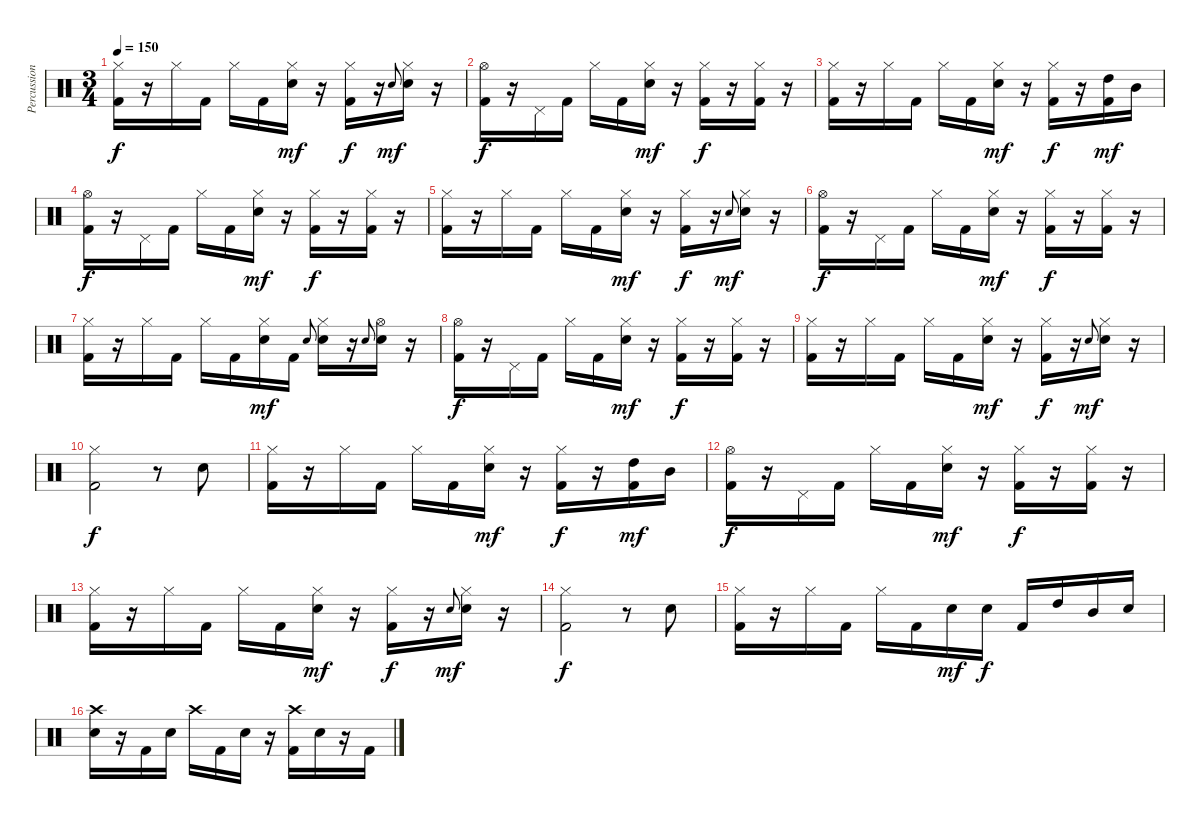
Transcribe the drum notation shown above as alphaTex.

\track ("Percussion" "Percussion") {instrument percussion}
\staff {score}
\articulation defaults
\ts (3 4)
\tempo 150
\clef neutral
\ks c
("Hi-Hat (closed)" "Kick (hit) 2").16{dy f} r.16 "Hi-Hat (closed)".16 "Kick (hit) 2".16 "Hi-Hat (closed)".16 "Kick (hit) 2".16 ("Hi-Hat (closed)" "Electric Snare (hit)").16{dy mf} r.16 ("Hi-Hat (closed)" "Kick (hit) 2").16{dy f} r.16 "Electric Snare (hit)"{h}.8{gr onbeat dy mf} ("Hi-Hat (closed)" "Electric Snare (hit)").16 r.16 |
("Hi-Hat (open)" "Kick (hit) 2").16{dy f} r.16 "Pedal Hi-Hat (hit)".16 "Kick (hit) 2".16 "Hi-Hat (closed)".16 "Kick (hit) 2".16 ("Hi-Hat (closed)" "Electric Snare (hit)").16{dy mf} r.16 ("Hi-Hat (closed)" "Kick (hit) 2").16{dy f} r.16 ("Hi-Hat (closed)" "Kick (hit) 2").16 r.16 |
("Hi-Hat (closed)" "Kick (hit) 2").16 r.16 "Hi-Hat (closed)".16 "Kick (hit) 2".16 "Hi-Hat (closed)".16 "Kick (hit) 2".16 ("Hi-Hat (closed)" "Electric Snare (hit)").16{dy mf} r.16 ("Hi-Hat (closed)" "Kick (hit) 2").16{dy f} r.16 ("High Tom (hit)" "Kick (hit) 2").16{dy mf} "Mid Tom (hit)".16 |
("Hi-Hat (open)" "Kick (hit) 2").16{dy f} r.16 "Pedal Hi-Hat (hit)".16 "Kick (hit) 2".16 "Hi-Hat (closed)".16 "Kick (hit) 2".16 ("Hi-Hat (closed)" "Electric Snare (hit)").16{dy mf} r.16 ("Hi-Hat (closed)" "Kick (hit) 2").16{dy f} r.16 ("Hi-Hat (closed)" "Kick (hit) 2").16 r.16 |
("Hi-Hat (closed)" "Kick (hit) 2").16 r.16 "Hi-Hat (closed)".16 "Kick (hit) 2".16 "Hi-Hat (closed)".16 "Kick (hit) 2".16 ("Hi-Hat (closed)" "Electric Snare (hit)").16{dy mf} r.16 ("Hi-Hat (closed)" "Kick (hit) 2").16{dy f} r.16 "Electric Snare (hit)"{h}.8{gr onbeat dy mf} ("Hi-Hat (closed)" "Electric Snare (hit)").16 r.16 |
("Hi-Hat (open)" "Kick (hit) 2").16{dy f} r.16 "Pedal Hi-Hat (hit)".16 "Kick (hit) 2".16 "Hi-Hat (closed)".16 "Kick (hit) 2".16 ("Hi-Hat (closed)" "Electric Snare (hit)").16{dy mf} r.16 ("Hi-Hat (closed)" "Kick (hit) 2").16{dy f} r.16 ("Hi-Hat (closed)" "Kick (hit) 2").16 r.16 |
("Hi-Hat (closed)" "Kick (hit) 2").16 r.16 "Hi-Hat (closed)".16 "Kick (hit) 2".16 "Hi-Hat (closed)".16 "Kick (hit) 2".16 ("Hi-Hat (closed)" "Electric Snare (hit)").16{dy mf} "Kick (hit) 2".16 "Electric Snare (hit)"{h}.8{gr onbeat} ("Hi-Hat (closed)" "Electric Snare (hit)").16 r.16 "Electric Snare (hit)"{h}.8{gr onbeat} ("Hi-Hat (open)" "Electric Snare (hit)").16 r.16 |
("Hi-Hat (open)" "Kick (hit) 2").16{dy f} r.16 "Pedal Hi-Hat (hit)".16 "Kick (hit) 2".16 "Hi-Hat (closed)".16 "Kick (hit) 2".16 ("Hi-Hat (closed)" "Electric Snare (hit)").16{dy mf} r.16 ("Hi-Hat (closed)" "Kick (hit) 2").16{dy f} r.16 ("Hi-Hat (closed)" "Kick (hit) 2").16 r.16 |
("Hi-Hat (closed)" "Kick (hit) 2").16 r.16 "Hi-Hat (closed)".16 "Kick (hit) 2".16 "Hi-Hat (closed)".16 "Kick (hit) 2".16 ("Hi-Hat (closed)" "Electric Snare (hit)").16{dy mf} r.16 ("Hi-Hat (closed)" "Kick (hit) 2").16{dy f} r.16 "Electric Snare (hit)"{h}.8{gr onbeat dy mf} ("Hi-Hat (closed)" "Electric Snare (hit)").16 r.16 |
("Hi-Hat (closed)" "Kick (hit) 2").2{dy f} r.8 "Electric Snare (hit)".8 |
("Hi-Hat (closed)" "Kick (hit) 2").16 r.16 "Hi-Hat (closed)".16 "Kick (hit) 2".16 "Hi-Hat (closed)".16 "Kick (hit) 2".16 ("Hi-Hat (closed)" "Electric Snare (hit)").16{dy mf} r.16 ("Hi-Hat (closed)" "Kick (hit) 2").16{dy f} r.16 ("High Tom (hit)" "Kick (hit) 2").16{dy mf} "Mid Tom (hit)".16 |
("Hi-Hat (open)" "Kick (hit) 2").16{dy f} r.16 "Pedal Hi-Hat (hit)".16 "Kick (hit) 2".16 "Hi-Hat (closed)".16 "Kick (hit) 2".16 ("Hi-Hat (closed)" "Electric Snare (hit)").16{dy mf} r.16 ("Hi-Hat (closed)" "Kick (hit) 2").16{dy f} r.16 ("Hi-Hat (closed)" "Kick (hit) 2").16 r.16 |
("Hi-Hat (closed)" "Kick (hit) 2").16 r.16 "Hi-Hat (closed)".16 "Kick (hit) 2".16 "Hi-Hat (closed)".16 "Kick (hit) 2".16 ("Hi-Hat (closed)" "Electric Snare (hit)").16{dy mf} r.16 ("Hi-Hat (closed)" "Kick (hit) 2").16{dy f} r.16 "Electric Snare (hit)"{h}.8{gr onbeat dy mf} ("Hi-Hat (closed)" "Electric Snare (hit)").16 r.16 |
("Hi-Hat (closed)" "Kick (hit) 2").2{dy f} r.8 "Electric Snare (hit)".8 |
("Hi-Hat (closed)" "Kick (hit) 2").16 r.16 "Hi-Hat (closed)".16 "Kick (hit) 2".16 "Hi-Hat (closed)".16 "Kick (hit) 2".16 "Electric Snare (hit)".16{dy mf} "Electric Snare (hit)".16{dy f} "Kick (hit) 2".16 "High Tom (hit)".16 "Mid Tom (hit)".16 "Electric Snare (hit)".16 |
("Crash high (hit)" "Electric Snare (hit)").16 r.16 "Kick (hit) 2".16 "Electric Snare (hit)".16 "Crash high (hit)".16 "Kick (hit) 2".16 "Electric Snare (hit)".16 r.16 ("Crash high (hit)" "Kick (hit) 2").16 "Electric Snare (hit)".16 r.16 "Kick (hit) 2".16
